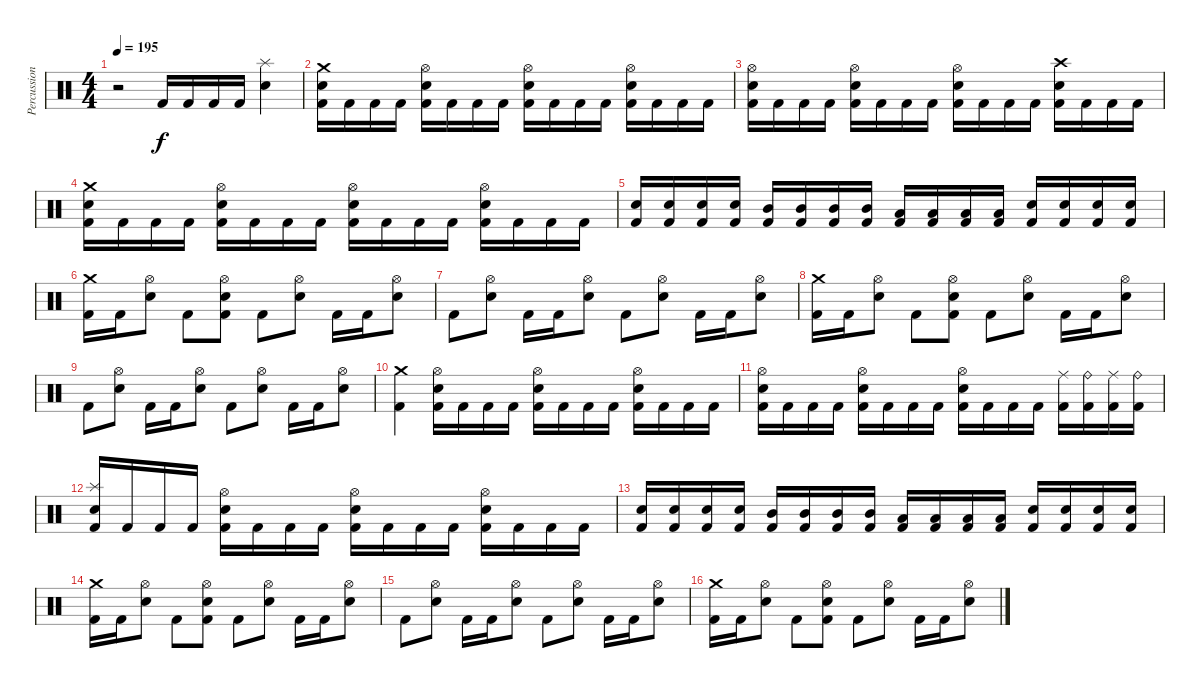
\track ("Percussion" "Percussion") {instrument percussion}
\staff {score}
\articulation defaults
\ts (4 4)
\tempo 195
\clef neutral
\ks c
r.2{dy f} "Kick (hit) 2".16 "Kick (hit) 2".16 "Kick (hit) 2".16 "Kick (hit) 2".16 ("Splash (hit)" "Electric Snare (hit)").4 |
("Crash medium (hit)" "Electric Snare (hit)" "Kick (hit) 2").16 "Kick (hit) 2".16 "Kick (hit) 2".16 "Kick (hit) 2".16 ("Hi-Hat (open)" "Electric Snare (hit)" "Kick (hit) 2").16 "Kick (hit) 2".16 "Kick (hit) 2".16 "Kick (hit) 2".16 ("Hi-Hat (open)" "Electric Snare (hit)" "Kick (hit) 2").16 "Kick (hit) 2".16 "Kick (hit) 2".16 "Kick (hit) 2".16 ("Hi-Hat (open)" "Electric Snare (hit)" "Kick (hit) 2").16 "Kick (hit) 2".16 "Kick (hit) 2".16 "Kick (hit) 2".16 |
("Hi-Hat (open)" "Electric Snare (hit)" "Kick (hit) 2").16 "Kick (hit) 2".16 "Kick (hit) 2".16 "Kick (hit) 2".16 ("Hi-Hat (open)" "Electric Snare (hit)" "Kick (hit) 2").16 "Kick (hit) 2".16 "Kick (hit) 2".16 "Kick (hit) 2".16 ("Hi-Hat (open)" "Electric Snare (hit)" "Kick (hit) 2").16 "Kick (hit) 2".16 "Kick (hit) 2".16 "Kick (hit) 2".16 ("Crash high (hit)" "Electric Snare (hit)" "Kick (hit) 2").16 "Kick (hit) 2".16 "Kick (hit) 2".16 "Kick (hit) 2".16 |
("Crash medium (hit)" "Electric Snare (hit)" "Kick (hit) 2").16 "Kick (hit) 2".16 "Kick (hit) 2".16 "Kick (hit) 2".16 ("Hi-Hat (open)" "Electric Snare (hit)" "Kick (hit) 2").16 "Kick (hit) 2".16 "Kick (hit) 2".16 "Kick (hit) 2".16 ("Hi-Hat (open)" "Electric Snare (hit)" "Kick (hit) 2").16 "Kick (hit) 2".16 "Kick (hit) 2".16 "Kick (hit) 2".16 ("Hi-Hat (open)" "Electric Snare (hit)" "Kick (hit) 2").16 "Kick (hit) 2".16 "Kick (hit) 2".16 "Kick (hit) 2".16 |
("Electric Snare (hit)" "Kick (hit) 2").16 ("Electric Snare (hit)" "Kick (hit) 2").16 ("Electric Snare (hit)" "Kick (hit) 2").16 ("Electric Snare (hit)" "Kick (hit) 2").16 ("Mid Tom (hit)" "Kick (hit) 2").16 ("Mid Tom (hit)" "Kick (hit) 2").16 ("Mid Tom (hit)" "Kick (hit) 2").16 ("Mid Tom (hit)" "Kick (hit) 2").16 ("Low Tom (hit)" "Kick (hit) 2").16 ("Low Tom (hit)" "Kick (hit) 2").16 ("Low Tom (hit)" "Kick (hit) 2").16 ("Low Tom (hit)" "Kick (hit) 2").16 ("Electric Snare (hit)" "Kick (hit) 2").16 ("Electric Snare (hit)" "Kick (hit) 2").16 ("Electric Snare (hit)" "Kick (hit) 2").16 ("Electric Snare (hit)" "Kick (hit) 2").16 |
("Crash medium (hit)" "Kick (hit) 2").16 "Kick (hit) 2".16 ("Hi-Hat (open)" "Electric Snare (hit)").8 "Kick (hit) 2".8 ("Hi-Hat (open)" "Electric Snare (hit)" "Kick (hit) 2").8 "Kick (hit) 2".8 ("Hi-Hat (open)" "Electric Snare (hit)").8 "Kick (hit) 2".16 "Kick (hit) 2".16 ("Hi-Hat (open)" "Electric Snare (hit)").8 |
"Kick (hit) 2".8 ("Hi-Hat (open)" "Electric Snare (hit)").8 "Kick (hit) 2".16 "Kick (hit) 2".16 ("Hi-Hat (open)" "Electric Snare (hit)").8 "Kick (hit) 2".8 ("Hi-Hat (open)" "Electric Snare (hit)").8 "Kick (hit) 2".16 "Kick (hit) 2".16 ("Hi-Hat (open)" "Electric Snare (hit)").8 |
("Crash medium (hit)" "Kick (hit) 2").16 "Kick (hit) 2".16 ("Hi-Hat (open)" "Electric Snare (hit)").8 "Kick (hit) 2".8 ("Hi-Hat (open)" "Electric Snare (hit)" "Kick (hit) 2").8 "Kick (hit) 2".8 ("Hi-Hat (open)" "Electric Snare (hit)").8 "Kick (hit) 2".16 "Kick (hit) 2".16 ("Hi-Hat (open)" "Electric Snare (hit)").8 |
"Kick (hit) 2".8 ("Hi-Hat (open)" "Electric Snare (hit)").8 "Kick (hit) 2".16 "Kick (hit) 2".16 ("Hi-Hat (open)" "Electric Snare (hit)").8 "Kick (hit) 2".8 ("Hi-Hat (open)" "Electric Snare (hit)").8 "Kick (hit) 2".16 "Kick (hit) 2".16 ("Hi-Hat (open)" "Electric Snare (hit)").8 |
("Crash medium (hit)" "Kick (hit) 2").4 ("Hi-Hat (open)" "Electric Snare (hit)" "Kick (hit) 2").16 "Kick (hit) 2".16 "Kick (hit) 2".16 "Kick (hit) 2".16 ("Hi-Hat (open)" "Electric Snare (hit)" "Kick (hit) 2").16 "Kick (hit) 2".16 "Kick (hit) 2".16 "Kick (hit) 2".16 ("Hi-Hat (open)" "Electric Snare (hit)" "Kick (hit) 2").16 "Kick (hit) 2".16 "Kick (hit) 2".16 "Kick (hit) 2".16 |
("Hi-Hat (open)" "Electric Snare (hit)" "Kick (hit) 2").16 "Kick (hit) 2".16 "Kick (hit) 2".16 "Kick (hit) 2".16 ("Hi-Hat (open)" "Electric Snare (hit)" "Kick (hit) 2").16 "Kick (hit) 2".16 "Kick (hit) 2".16 "Kick (hit) 2".16 ("Hi-Hat (open)" "Electric Snare (hit)" "Kick (hit) 2").16 "Kick (hit) 2".16 "Kick (hit) 2".16 "Kick (hit) 2".16 ("Ride (middle)" "Kick (hit) 2").16 ("Ride (bell)" "Kick (hit) 2").16 ("Ride (middle)" "Kick (hit) 2").16 ("Ride (bell)" "Kick (hit) 2").16 |
("Splash (hit)" "Electric Snare (hit)" "Kick (hit) 2").16 "Kick (hit) 2".16 "Kick (hit) 2".16 "Kick (hit) 2".16 ("Hi-Hat (open)" "Electric Snare (hit)" "Kick (hit) 2").16 "Kick (hit) 2".16 "Kick (hit) 2".16 "Kick (hit) 2".16 ("Hi-Hat (open)" "Electric Snare (hit)" "Kick (hit) 2").16 "Kick (hit) 2".16 "Kick (hit) 2".16 "Kick (hit) 2".16 ("Hi-Hat (open)" "Electric Snare (hit)" "Kick (hit) 2").16 "Kick (hit) 2".16 "Kick (hit) 2".16 "Kick (hit) 2".16 |
("Electric Snare (hit)" "Kick (hit) 2").16 ("Electric Snare (hit)" "Kick (hit) 2").16 ("Electric Snare (hit)" "Kick (hit) 2").16 ("Electric Snare (hit)" "Kick (hit) 2").16 ("Mid Tom (hit)" "Kick (hit) 2").16 ("Mid Tom (hit)" "Kick (hit) 2").16 ("Mid Tom (hit)" "Kick (hit) 2").16 ("Mid Tom (hit)" "Kick (hit) 2").16 ("Low Tom (hit)" "Kick (hit) 2").16 ("Low Tom (hit)" "Kick (hit) 2").16 ("Low Tom (hit)" "Kick (hit) 2").16 ("Low Tom (hit)" "Kick (hit) 2").16 ("Electric Snare (hit)" "Kick (hit) 2").16 ("Electric Snare (hit)" "Kick (hit) 2").16 ("Electric Snare (hit)" "Kick (hit) 2").16 ("Electric Snare (hit)" "Kick (hit) 2").16 |
("Crash medium (hit)" "Kick (hit) 2").16 "Kick (hit) 2".16 ("Hi-Hat (open)" "Electric Snare (hit)").8 "Kick (hit) 2".8 ("Hi-Hat (open)" "Electric Snare (hit)" "Kick (hit) 2").8 "Kick (hit) 2".8 ("Hi-Hat (open)" "Electric Snare (hit)").8 "Kick (hit) 2".16 "Kick (hit) 2".16 ("Hi-Hat (open)" "Electric Snare (hit)").8 |
"Kick (hit) 2".8 ("Hi-Hat (open)" "Electric Snare (hit)").8 "Kick (hit) 2".16 "Kick (hit) 2".16 ("Hi-Hat (open)" "Electric Snare (hit)").8 "Kick (hit) 2".8 ("Hi-Hat (open)" "Electric Snare (hit)").8 "Kick (hit) 2".16 "Kick (hit) 2".16 ("Hi-Hat (open)" "Electric Snare (hit)").8 |
("Crash medium (hit)" "Kick (hit) 2").16 "Kick (hit) 2".16 ("Hi-Hat (open)" "Electric Snare (hit)").8 "Kick (hit) 2".8 ("Hi-Hat (open)" "Electric Snare (hit)" "Kick (hit) 2").8 "Kick (hit) 2".8 ("Hi-Hat (open)" "Electric Snare (hit)").8 "Kick (hit) 2".16 "Kick (hit) 2".16 ("Hi-Hat (open)" "Electric Snare (hit)").8
